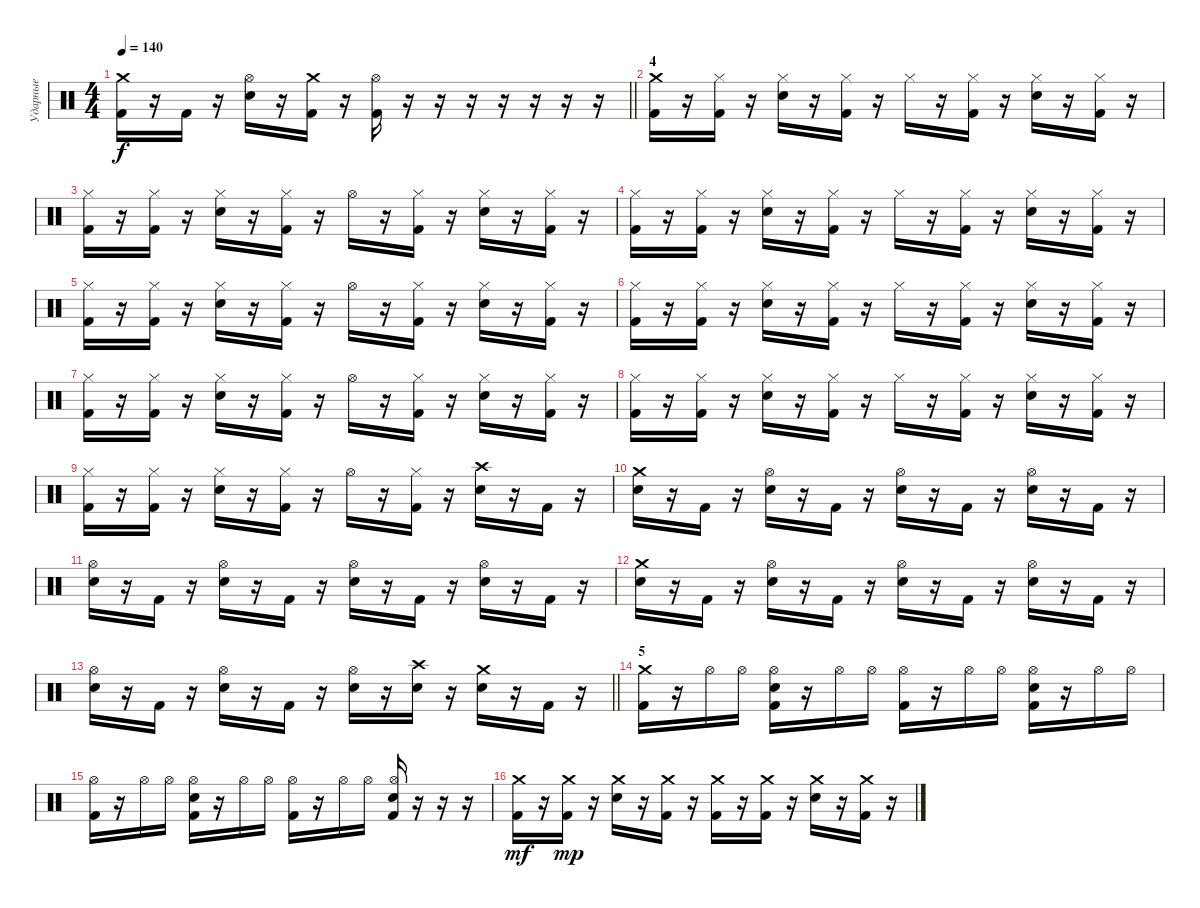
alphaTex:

\track ("Ударные" "Ударные") {instrument percussion}
\staff {score}
\articulation defaults
\ts (4 4)
\tempo 140
\clef neutral
\barLineRight lightlight
\ks c
("Crash medium (hit)" "Kick (hit) 2").16{dy f} r.16 "Kick (hit) 2".16 r.16 ("Hi-Hat (open)" "Electric Snare (hit)").16 r.16 ("Crash medium (hit)" "Kick (hit) 2").16 r.16 ("Hi-Hat (open)" "Kick (hit) 2").16 r.16 r.16 r.16 r.16 r.16 r.16 r.16 |
\section ("" "4")
("Crash medium (hit)" "Kick (hit) 2").16 r.16 ("Hi-Hat (closed)" "Kick (hit) 2").16 r.16 ("Hi-Hat (closed)" "Electric Snare (hit)").16 r.16 ("Hi-Hat (closed)" "Kick (hit) 2").16 r.16 "Hi-Hat (closed)".16 r.16 ("Hi-Hat (closed)" "Kick (hit) 2").16 r.16 ("Hi-Hat (closed)" "Electric Snare (hit)").16 r.16 ("Hi-Hat (closed)" "Kick (hit) 2").16 r.16 |
("Hi-Hat (closed)" "Kick (hit) 2").16 r.16 ("Hi-Hat (closed)" "Kick (hit) 2").16 r.16 ("Hi-Hat (closed)" "Electric Snare (hit)").16 r.16 ("Hi-Hat (closed)" "Kick (hit) 2").16 r.16 "Hi-Hat (open)".16 r.16 ("Hi-Hat (closed)" "Kick (hit) 2").16 r.16 ("Hi-Hat (closed)" "Electric Snare (hit)").16 r.16 ("Hi-Hat (closed)" "Kick (hit) 2").16 r.16 |
("Hi-Hat (closed)" "Kick (hit) 2").16 r.16 ("Hi-Hat (closed)" "Kick (hit) 2").16 r.16 ("Hi-Hat (closed)" "Electric Snare (hit)").16 r.16 ("Hi-Hat (closed)" "Kick (hit) 2").16 r.16 "Hi-Hat (closed)".16 r.16 ("Hi-Hat (closed)" "Kick (hit) 2").16 r.16 ("Hi-Hat (closed)" "Electric Snare (hit)").16 r.16 ("Hi-Hat (closed)" "Kick (hit) 2").16 r.16 |
("Hi-Hat (closed)" "Kick (hit) 2").16 r.16 ("Hi-Hat (closed)" "Kick (hit) 2").16 r.16 ("Hi-Hat (closed)" "Electric Snare (hit)").16 r.16 ("Hi-Hat (closed)" "Kick (hit) 2").16 r.16 "Hi-Hat (open)".16 r.16 ("Hi-Hat (closed)" "Kick (hit) 2").16 r.16 ("Hi-Hat (closed)" "Electric Snare (hit)").16 r.16 ("Hi-Hat (closed)" "Kick (hit) 2").16 r.16 |
("Hi-Hat (closed)" "Kick (hit) 2").16 r.16 ("Hi-Hat (closed)" "Kick (hit) 2").16 r.16 ("Hi-Hat (closed)" "Electric Snare (hit)").16 r.16 ("Hi-Hat (closed)" "Kick (hit) 2").16 r.16 "Hi-Hat (closed)".16 r.16 ("Hi-Hat (closed)" "Kick (hit) 2").16 r.16 ("Hi-Hat (closed)" "Electric Snare (hit)").16 r.16 ("Hi-Hat (closed)" "Kick (hit) 2").16 r.16 |
("Hi-Hat (closed)" "Kick (hit) 2").16 r.16 ("Hi-Hat (closed)" "Kick (hit) 2").16 r.16 ("Hi-Hat (closed)" "Electric Snare (hit)").16 r.16 ("Hi-Hat (closed)" "Kick (hit) 2").16 r.16 "Hi-Hat (open)".16 r.16 ("Hi-Hat (closed)" "Kick (hit) 2").16 r.16 ("Hi-Hat (closed)" "Electric Snare (hit)").16 r.16 ("Hi-Hat (closed)" "Kick (hit) 2").16 r.16 |
("Hi-Hat (closed)" "Kick (hit) 2").16 r.16 ("Hi-Hat (closed)" "Kick (hit) 2").16 r.16 ("Hi-Hat (closed)" "Electric Snare (hit)").16 r.16 ("Hi-Hat (closed)" "Kick (hit) 2").16 r.16 "Hi-Hat (closed)".16 r.16 ("Hi-Hat (closed)" "Kick (hit) 2").16 r.16 ("Hi-Hat (closed)" "Electric Snare (hit)").16 r.16 ("Hi-Hat (closed)" "Kick (hit) 2").16 r.16 |
("Hi-Hat (closed)" "Kick (hit) 2").16 r.16 ("Hi-Hat (closed)" "Kick (hit) 2").16 r.16 ("Hi-Hat (closed)" "Electric Snare (hit)").16 r.16 ("Hi-Hat (closed)" "Kick (hit) 2").16 r.16 "Hi-Hat (open)".16 r.16 ("Hi-Hat (closed)" "Kick (hit) 2").16 r.16 ("Crash high (hit)" "Electric Snare (hit)").16 r.16 "Kick (hit) 2".16 r.16 |
("Crash medium (hit)" "Electric Snare (hit)").16 r.16 "Kick (hit) 2".16 r.16 ("Hi-Hat (open)" "Electric Snare (hit)").16 r.16 "Kick (hit) 2".16 r.16 ("Hi-Hat (open)" "Electric Snare (hit)").16 r.16 "Kick (hit) 2".16 r.16 ("Hi-Hat (open)" "Electric Snare (hit)").16 r.16 "Kick (hit) 2".16 r.16 |
("Hi-Hat (open)" "Electric Snare (hit)").16 r.16 "Kick (hit) 2".16 r.16 ("Hi-Hat (open)" "Electric Snare (hit)").16 r.16 "Kick (hit) 2".16 r.16 ("Hi-Hat (open)" "Electric Snare (hit)").16 r.16 "Kick (hit) 2".16 r.16 ("Hi-Hat (open)" "Electric Snare (hit)").16 r.16 "Kick (hit) 2".16 r.16 |
("Crash medium (hit)" "Electric Snare (hit)").16 r.16 "Kick (hit) 2".16 r.16 ("Hi-Hat (open)" "Electric Snare (hit)").16 r.16 "Kick (hit) 2".16 r.16 ("Hi-Hat (open)" "Electric Snare (hit)").16 r.16 "Kick (hit) 2".16 r.16 ("Hi-Hat (open)" "Electric Snare (hit)").16 r.16 "Kick (hit) 2".16 r.16 |
\barLineRight lightlight
("Hi-Hat (open)" "Electric Snare (hit)").16 r.16 "Kick (hit) 2".16 r.16 ("Hi-Hat (open)" "Electric Snare (hit)").16 r.16 "Kick (hit) 2".16 r.16 ("Hi-Hat (open)" "Electric Snare (hit)").16 r.16 ("Crash high (hit)" "Electric Snare (hit)").16 r.16 ("Crash medium (hit)" "Electric Snare (hit)").16 r.16 "Kick (hit) 2".16 r.16 |
\section ("" "5")
("Crash medium (hit)" "Kick (hit) 2").16 r.16 "Hi-Hat (open)".16 "Hi-Hat (open)".16 ("Hi-Hat (open)" "Electric Snare (hit)" "Kick (hit) 2").16 r.16 "Hi-Hat (open)".16 "Hi-Hat (open)".16 ("Hi-Hat (open)" "Kick (hit) 2").16 r.16 "Hi-Hat (open)".16 "Hi-Hat (open)".16 ("Hi-Hat (open)" "Electric Snare (hit)" "Kick (hit) 2").16 r.16 "Hi-Hat (open)".16 "Hi-Hat (open)".16 |
("Hi-Hat (open)" "Kick (hit) 2").16 r.16 "Hi-Hat (open)".16 "Hi-Hat (open)".16 ("Hi-Hat (open)" "Electric Snare (hit)" "Kick (hit) 2").16 r.16 "Hi-Hat (open)".16 "Hi-Hat (open)".16 ("Hi-Hat (open)" "Kick (hit) 2").16 r.16 "Hi-Hat (open)".16 "Hi-Hat (open)".16 ("Hi-Hat (open)" "Electric Snare (hit)" "Kick (hit) 2").16 r.16 r.16 r.16 |
("Crash medium (hit)" "Kick (hit) 2").16{dy mf} r.16 ("Crash medium (hit)" "Kick (hit) 2").16{dy mp} r.16 ("Crash medium (hit)" "Electric Snare (hit)").16 r.16 ("Crash medium (hit)" "Kick (hit) 2").16 r.16 ("Crash medium (hit)" "Kick (hit) 2").16 r.16 ("Crash medium (hit)" "Kick (hit) 2").16 r.16 ("Crash medium (hit)" "Electric Snare (hit)").16 r.16 ("Crash medium (hit)" "Kick (hit) 2").16 r.16
